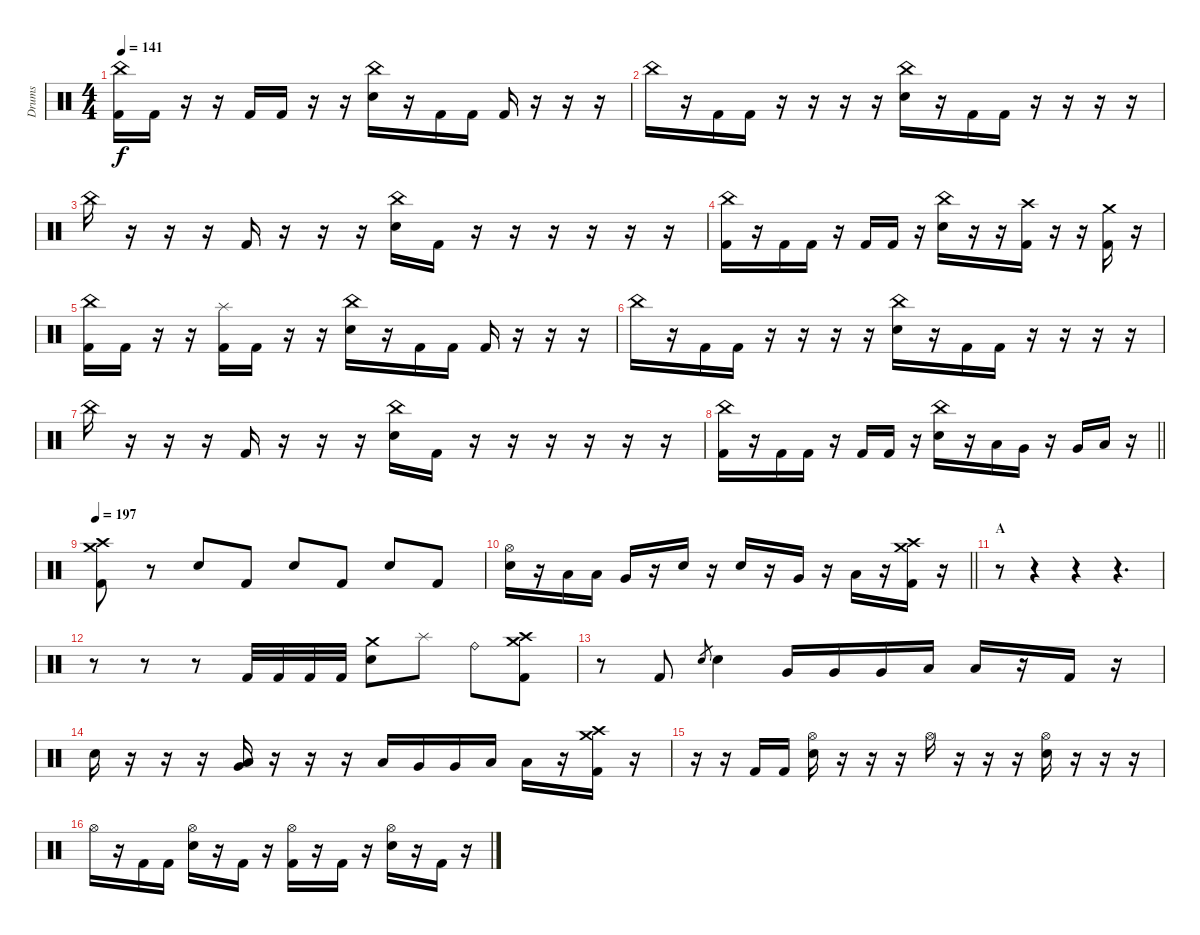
\track ("Drums" "Drums") {instrument percussion}
\staff {score}
\articulation defaults
\ts (4 4)
\section ("" "")
\tempo 141
\clef neutral
\ks c
("China (hit)" "Kick (hit) 2").16{dy f} "Kick (hit) 2".16 r.16 r.16 "Kick (hit) 2".16 "Kick (hit) 2".16 r.16 r.16 ("China (hit)" "Electric Snare (hit)").16 r.16 "Kick (hit) 2".16 "Kick (hit) 2".16 "Kick (hit) 2".16 r.16 r.16 r.16 |
"China (hit)".16 r.16 "Kick (hit) 2".16 "Kick (hit) 2".16 r.16 r.16 r.16 r.16 ("China (hit)" "Electric Snare (hit)").16 r.16 "Kick (hit) 2".16 "Kick (hit) 2".16 r.16 r.16 r.16 r.16 |
"China (hit)".16 r.16 r.16 r.16 "Kick (hit) 2".16 r.16 r.16 r.16 ("China (hit)" "Electric Snare (hit)").16 "Kick (hit) 2".16 r.16 r.16 r.16 r.16 r.16 r.16 |
("China (hit)" "Kick (hit) 2").16 r.16 "Kick (hit) 2".16 "Kick (hit) 2".16 r.16 "Kick (hit) 2".16 "Kick (hit) 2".16 r.16 ("China (hit)" "Electric Snare (hit)").16 r.16 r.16 ("Crash high (hit)" "Kick (hit) 2").16 r.16 r.16 ("Crash medium (hit)" "Kick (hit) 2").16 r.16 |
("China (hit)" "Kick (hit) 2").16 "Kick (hit) 2".16 r.16 r.16 ("Splash (hit)" "Kick (hit) 2").16 "Kick (hit) 2".16 r.16 r.16 ("China (hit)" "Electric Snare (hit)").16 r.16 "Kick (hit) 2".16 "Kick (hit) 2".16 "Kick (hit) 2".16 r.16 r.16 r.16 |
"China (hit)".16 r.16 "Kick (hit) 2".16 "Kick (hit) 2".16 r.16 r.16 r.16 r.16 ("China (hit)" "Electric Snare (hit)").16 r.16 "Kick (hit) 2".16 "Kick (hit) 2".16 r.16 r.16 r.16 r.16 |
"China (hit)".16 r.16 r.16 r.16 "Kick (hit) 2".16 r.16 r.16 r.16 ("China (hit)" "Electric Snare (hit)").16 "Kick (hit) 2".16 r.16 r.16 r.16 r.16 r.16 r.16 |
\barLineRight lightlight
("China (hit)" "Kick (hit) 2").16 r.16 "Kick (hit) 2".16 "Kick (hit) 2".16 r.16 "Kick (hit) 2".16 "Kick (hit) 2".16 r.16 ("China (hit)" "Electric Snare (hit)").16 r.16 "Low Tom (hit)".16 "Very Low Tom (hit)".16 r.16 "Very Low Tom (hit)".16 "Low Floor Tom (hit)".16 r.16 |
\section ("" "")
\tempo 197
("Crash high (hit)" "Crash medium (hit)" "Kick (hit) 2").8 r.8 "Electric Snare (hit)".8 "Kick (hit) 2".8 "Electric Snare (hit)".8 "Kick (hit) 2".8 "Electric Snare (hit)".8 "Kick (hit) 2".8 |
\barLineRight lightlight
("Hi-Hat (open)" "Electric Snare (hit)").16 r.16 "Low Tom (hit)".16 "Low Tom (hit)".16 "Very Low Tom (hit)".16 r.16 "Electric Snare (hit)".16 r.16 "Electric Snare (hit)".16 r.16 "Very Low Tom (hit)".16 r.16 "Low Floor Tom (hit)".16 r.16 ("Crash high (hit)" "Crash medium (hit)" "Kick (hit) 2").16 r.16 |
\section ("" "A")
r.8 r.4{volume 0} r.4 r.4{d} |
r.8 r.8 r.8{volume 16} "Kick (hit) 2".32 "Kick (hit) 2".32 "Kick (hit) 2".32 "Kick (hit) 2".32 ("Crash medium (hit)" "Electric Snare (hit)").8 "Splash (hit)".8 "Ride (bell)".8 ("Crash high (hit)" "Crash medium (hit)" "Kick (hit) 2").8 |
r.8 "Kick (hit) 2".8 "Electric Snare (hit)".8{gr} "Electric Snare (hit)".4 "Very Low Tom (hit)".16 "Very Low Tom (hit)".16 "Very Low Tom (hit)".16 "Low Floor Tom (hit)".16 "Low Floor Tom (hit)".16 r.16 "Kick (hit) 2".16 r.16 |
"Electric Snare (hit)".16 r.16 r.16 r.16 ("Low Floor Tom (hit)" "Very Low Tom (hit)").16 r.16 r.16 r.16 "Low Tom (hit)".16 "Very Low Tom (hit)".16 "Very Low Tom (hit)".16 "Low Floor Tom (hit)".16 "Low Floor Tom (hit)".16 r.16 ("Crash high (hit)" "Crash medium (hit)" "Kick (hit) 2").16 r.16 |
r.16 r.16 "Kick (hit) 2".16 "Kick (hit) 2".16 ("Hi-Hat (open)" "Electric Snare (hit)").16 r.16 r.16 r.16 "Hi-Hat (open)".16 r.16 r.16 r.16 ("Hi-Hat (open)" "Electric Snare (hit)").16 r.16 r.16 r.16 |
"Hi-Hat (open)".16 r.16 "Kick (hit) 2".16 "Kick (hit) 2".16 ("Hi-Hat (open)" "Electric Snare (hit)").16 r.16 "Kick (hit) 2".16 r.16 ("Hi-Hat (open)" "Kick (hit) 2").16 r.16 "Kick (hit) 2".16 r.16 ("Hi-Hat (open)" "Electric Snare (hit)").16 r.16 "Kick (hit) 2".16 r.16
